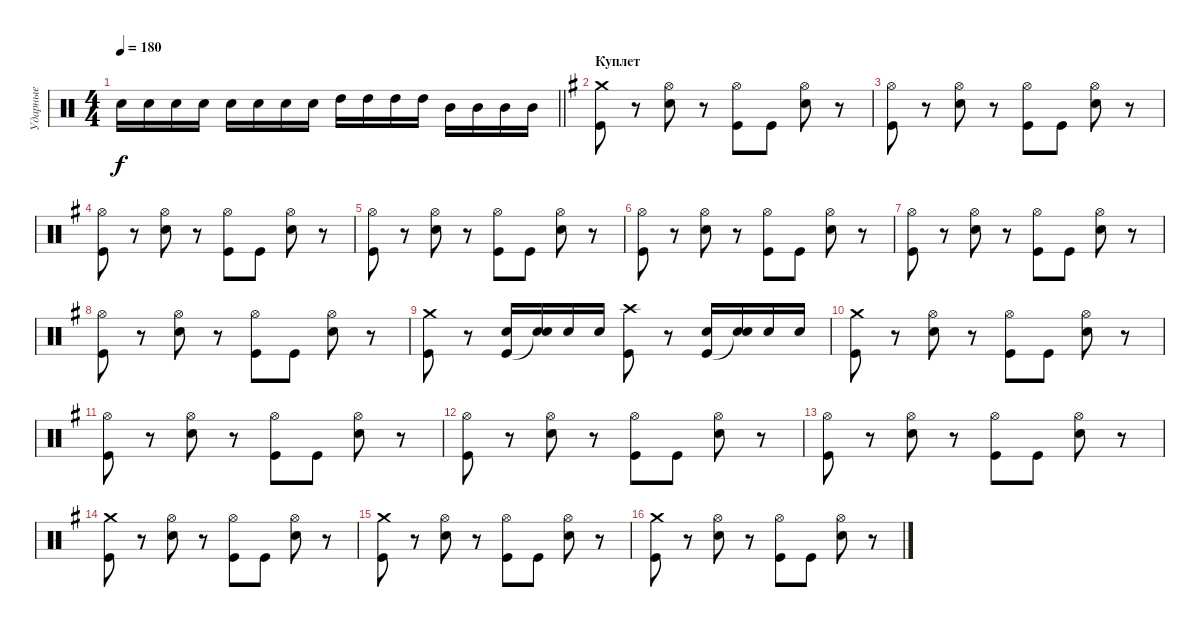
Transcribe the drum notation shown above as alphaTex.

\track ("Ударные" "Ударные") {instrument percussion}
\staff {score}
\articulation defaults
\ts (4 4)
\tempo 180
\clef neutral
\barLineRight lightlight
\ks c "Electric Snare (hit)".16{dy f} "Electric Snare (hit)".16 "Electric Snare (hit)".16 "Electric Snare (hit)".16 "Electric Snare (hit)".16 "Electric Snare (hit)".16 "Electric Snare (hit)".16 "Electric Snare (hit)".16 "High Tom (hit)".16 "High Tom (hit)".16 "High Tom (hit)".16 "High Tom (hit)".16 "Mid Tom (hit)".16 "Mid Tom (hit)".16 "Mid Tom (hit)".16 "Mid Tom (hit)".16
|
\section ("" "Куплет")
\ks g
("Crash medium (hit)" "Kick (hit)").8 r.8 ("Hi-Hat (open)" "Electric Snare (hit)").8 r.8 ("Hi-Hat (open)" "Kick (hit)").8 "Kick (hit)".8 ("Hi-Hat (open)" "Electric Snare (hit)").8 r.8 |
("Hi-Hat (open)" "Kick (hit)").8 r.8 ("Hi-Hat (open)" "Electric Snare (hit)").8 r.8 ("Hi-Hat (open)" "Kick (hit)").8 "Kick (hit)".8 ("Hi-Hat (open)" "Electric Snare (hit)").8 r.8 |
("Hi-Hat (open)" "Kick (hit)").8 r.8 ("Hi-Hat (open)" "Electric Snare (hit)").8 r.8 ("Hi-Hat (open)" "Kick (hit)").8 "Kick (hit)".8 ("Hi-Hat (open)" "Electric Snare (hit)").8 r.8 |
("Hi-Hat (open)" "Kick (hit)").8 r.8 ("Hi-Hat (open)" "Electric Snare (hit)").8 r.8 ("Hi-Hat (open)" "Kick (hit)").8 "Kick (hit)".8 ("Hi-Hat (open)" "Electric Snare (hit)").8 r.8 |
("Hi-Hat (open)" "Kick (hit)").8 r.8 ("Hi-Hat (open)" "Electric Snare (hit)").8 r.8 ("Hi-Hat (open)" "Kick (hit)").8 "Kick (hit)".8 ("Hi-Hat (open)" "Electric Snare (hit)").8 r.8 |
("Hi-Hat (open)" "Kick (hit)").8 r.8 ("Hi-Hat (open)" "Electric Snare (hit)").8 r.8 ("Hi-Hat (open)" "Kick (hit)").8 "Kick (hit)".8 ("Hi-Hat (open)" "Electric Snare (hit)").8 r.8 |
("Hi-Hat (open)" "Kick (hit)").8 r.8 ("Hi-Hat (open)" "Electric Snare (hit)").8 r.8 ("Hi-Hat (open)" "Kick (hit)").8 "Kick (hit)".8 ("Hi-Hat (open)" "Electric Snare (hit)").8 r.8 |
("Crash medium (hit)" "Kick (hit)").8 r.8 ("Electric Snare (hit)" "Kick (hit)").16 ("Electric Snare (hit)" "Snare (hit)"{t}).16 "Electric Snare (hit)".16 "Electric Snare (hit)".16 ("Crash high (hit)" "Kick (hit)").8 r.8 ("Electric Snare (hit)" "Kick (hit)").16 ("Electric Snare (hit)" "Snare (hit)"{t}).16 "Electric Snare (hit)".16 "Electric Snare (hit)".16 |
("Crash medium (hit)" "Kick (hit)").8 r.8 ("Hi-Hat (open)" "Electric Snare (hit)").8 r.8 ("Hi-Hat (open)" "Kick (hit)").8 "Kick (hit)".8 ("Hi-Hat (open)" "Electric Snare (hit)").8 r.8 |
("Hi-Hat (open)" "Kick (hit)").8 r.8 ("Hi-Hat (open)" "Electric Snare (hit)").8 r.8 ("Hi-Hat (open)" "Kick (hit)").8 "Kick (hit)".8 ("Hi-Hat (open)" "Electric Snare (hit)").8 r.8 |
("Hi-Hat (open)" "Kick (hit)").8 r.8 ("Hi-Hat (open)" "Electric Snare (hit)").8 r.8 ("Hi-Hat (open)" "Kick (hit)").8 "Kick (hit)".8 ("Hi-Hat (open)" "Electric Snare (hit)").8 r.8 |
("Hi-Hat (open)" "Kick (hit)").8 r.8 ("Hi-Hat (open)" "Electric Snare (hit)").8 r.8 ("Hi-Hat (open)" "Kick (hit)").8 "Kick (hit)".8 ("Hi-Hat (open)" "Electric Snare (hit)").8 r.8 |
("Crash medium (hit)" "Kick (hit)").8 r.8 ("Hi-Hat (open)" "Electric Snare (hit)").8 r.8 ("Hi-Hat (open)" "Kick (hit)").8 "Kick (hit)".8 ("Hi-Hat (open)" "Electric Snare (hit)").8 r.8 |
("Crash medium (hit)" "Kick (hit)").8 r.8 ("Hi-Hat (open)" "Electric Snare (hit)").8 r.8 ("Hi-Hat (open)" "Kick (hit)").8 "Kick (hit)".8 ("Hi-Hat (open)" "Electric Snare (hit)").8 r.8 |
("Crash medium (hit)" "Kick (hit)").8 r.8 ("Hi-Hat (open)" "Electric Snare (hit)").8 r.8 ("Hi-Hat (open)" "Kick (hit)").8 "Kick (hit)".8 ("Hi-Hat (open)" "Electric Snare (hit)").8 r.8
